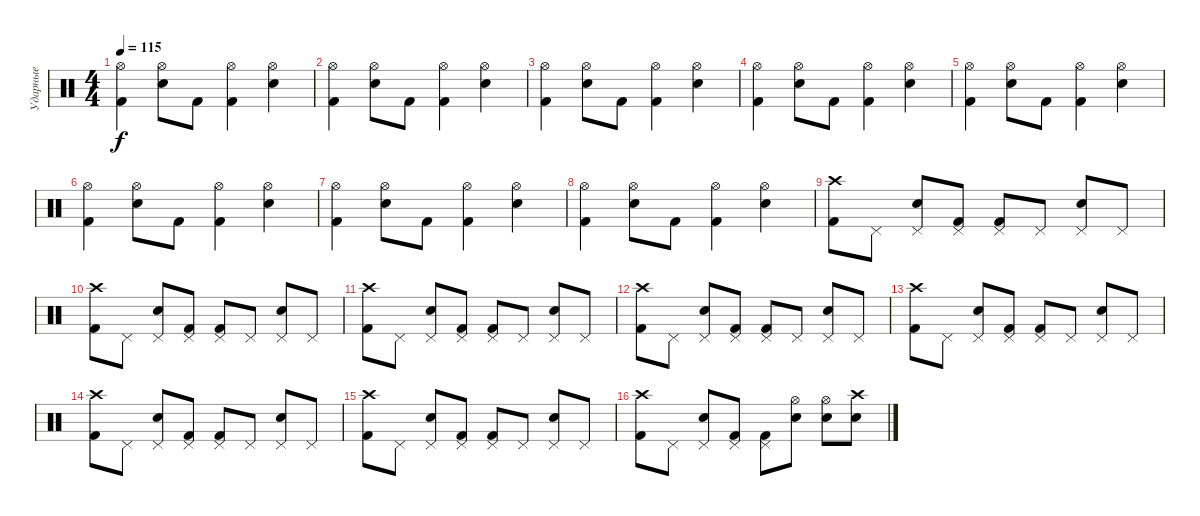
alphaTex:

\track ("Ударные" "Ударные") {instrument percussion}
\staff {score}
\articulation defaults
\ts (4 4)
\tempo 115
\clef neutral
\ks c
("Hi-Hat (open)" "Kick (hit) 2").4{dy f} ("Hi-Hat (open)" "Electric Snare (hit)").8 "Kick (hit) 2".8 ("Hi-Hat (open)" "Kick (hit) 2").4 ("Hi-Hat (open)" "Electric Snare (hit)").4 |
("Hi-Hat (open)" "Kick (hit) 2").4 ("Hi-Hat (open)" "Electric Snare (hit)").8 "Kick (hit) 2".8 ("Hi-Hat (open)" "Kick (hit) 2").4 ("Hi-Hat (open)" "Electric Snare (hit)").4 |
("Hi-Hat (open)" "Kick (hit) 2").4 ("Hi-Hat (open)" "Electric Snare (hit)").8 "Kick (hit) 2".8 ("Hi-Hat (open)" "Kick (hit) 2").4 ("Hi-Hat (open)" "Electric Snare (hit)").4 |
("Hi-Hat (open)" "Kick (hit) 2").4 ("Hi-Hat (open)" "Electric Snare (hit)").8 "Kick (hit) 2".8 ("Hi-Hat (open)" "Kick (hit) 2").4 ("Hi-Hat (open)" "Electric Snare (hit)").4 |
("Hi-Hat (open)" "Kick (hit) 2").4 ("Hi-Hat (open)" "Electric Snare (hit)").8 "Kick (hit) 2".8 ("Hi-Hat (open)" "Kick (hit) 2").4 ("Hi-Hat (open)" "Electric Snare (hit)").4 |
("Hi-Hat (open)" "Kick (hit) 2").4 ("Hi-Hat (open)" "Electric Snare (hit)").8 "Kick (hit) 2".8 ("Hi-Hat (open)" "Kick (hit) 2").4 ("Hi-Hat (open)" "Electric Snare (hit)").4 |
("Hi-Hat (open)" "Kick (hit) 2").4 ("Hi-Hat (open)" "Electric Snare (hit)").8 "Kick (hit) 2".8 ("Hi-Hat (open)" "Kick (hit) 2").4 ("Hi-Hat (open)" "Electric Snare (hit)").4 |
("Hi-Hat (open)" "Kick (hit) 2").4 ("Hi-Hat (open)" "Electric Snare (hit)").8 "Kick (hit) 2".8 ("Hi-Hat (open)" "Kick (hit) 2").4 ("Hi-Hat (open)" "Electric Snare (hit)").4 |
("Crash high (hit)" "Kick (hit) 2").8 "Pedal Hi-Hat (hit)".8 ("Pedal Hi-Hat (hit)" "Electric Snare (hit)").8 ("Pedal Hi-Hat (hit)" "Kick (hit) 2").8 ("Pedal Hi-Hat (hit)" "Kick (hit) 2").8 "Pedal Hi-Hat (hit)".8 ("Pedal Hi-Hat (hit)" "Electric Snare (hit)").8 "Pedal Hi-Hat (hit)".8 |
("Crash high (hit)" "Kick (hit) 2").8 "Pedal Hi-Hat (hit)".8 ("Pedal Hi-Hat (hit)" "Electric Snare (hit)").8 ("Pedal Hi-Hat (hit)" "Kick (hit) 2").8 ("Pedal Hi-Hat (hit)" "Kick (hit) 2").8 "Pedal Hi-Hat (hit)".8 ("Pedal Hi-Hat (hit)" "Electric Snare (hit)").8 "Pedal Hi-Hat (hit)".8 |
("Crash high (hit)" "Kick (hit) 2").8 "Pedal Hi-Hat (hit)".8 ("Pedal Hi-Hat (hit)" "Electric Snare (hit)").8 ("Pedal Hi-Hat (hit)" "Kick (hit) 2").8 ("Pedal Hi-Hat (hit)" "Kick (hit) 2").8 "Pedal Hi-Hat (hit)".8 ("Pedal Hi-Hat (hit)" "Electric Snare (hit)").8 "Pedal Hi-Hat (hit)".8 |
("Crash high (hit)" "Kick (hit) 2").8 "Pedal Hi-Hat (hit)".8 ("Pedal Hi-Hat (hit)" "Electric Snare (hit)").8 ("Pedal Hi-Hat (hit)" "Kick (hit) 2").8 ("Pedal Hi-Hat (hit)" "Kick (hit) 2").8 "Pedal Hi-Hat (hit)".8 ("Pedal Hi-Hat (hit)" "Electric Snare (hit)").8 "Pedal Hi-Hat (hit)".8 |
("Crash high (hit)" "Kick (hit) 2").8 "Pedal Hi-Hat (hit)".8 ("Pedal Hi-Hat (hit)" "Electric Snare (hit)").8 ("Pedal Hi-Hat (hit)" "Kick (hit) 2").8 ("Pedal Hi-Hat (hit)" "Kick (hit) 2").8 "Pedal Hi-Hat (hit)".8 ("Pedal Hi-Hat (hit)" "Electric Snare (hit)").8 "Pedal Hi-Hat (hit)".8 |
("Crash high (hit)" "Kick (hit) 2").8 "Pedal Hi-Hat (hit)".8 ("Pedal Hi-Hat (hit)" "Electric Snare (hit)").8 ("Pedal Hi-Hat (hit)" "Kick (hit) 2").8 ("Pedal Hi-Hat (hit)" "Kick (hit) 2").8 "Pedal Hi-Hat (hit)".8 ("Pedal Hi-Hat (hit)" "Electric Snare (hit)").8 "Pedal Hi-Hat (hit)".8 |
("Crash high (hit)" "Kick (hit) 2").8 "Pedal Hi-Hat (hit)".8 ("Pedal Hi-Hat (hit)" "Electric Snare (hit)").8 ("Pedal Hi-Hat (hit)" "Kick (hit) 2").8 ("Pedal Hi-Hat (hit)" "Kick (hit) 2").8 "Pedal Hi-Hat (hit)".8 ("Pedal Hi-Hat (hit)" "Electric Snare (hit)").8 "Pedal Hi-Hat (hit)".8 |
("Crash high (hit)" "Kick (hit) 2").8 "Pedal Hi-Hat (hit)".8 ("Pedal Hi-Hat (hit)" "Electric Snare (hit)").8 ("Pedal Hi-Hat (hit)" "Kick (hit) 2").8 ("Pedal Hi-Hat (hit)" "Kick (hit) 2").8 ("Hi-Hat (open)" "Electric Snare (hit)").8 ("Hi-Hat (open)" "Electric Snare (hit)").8 ("Crash high (hit)" "Electric Snare (hit)").8
